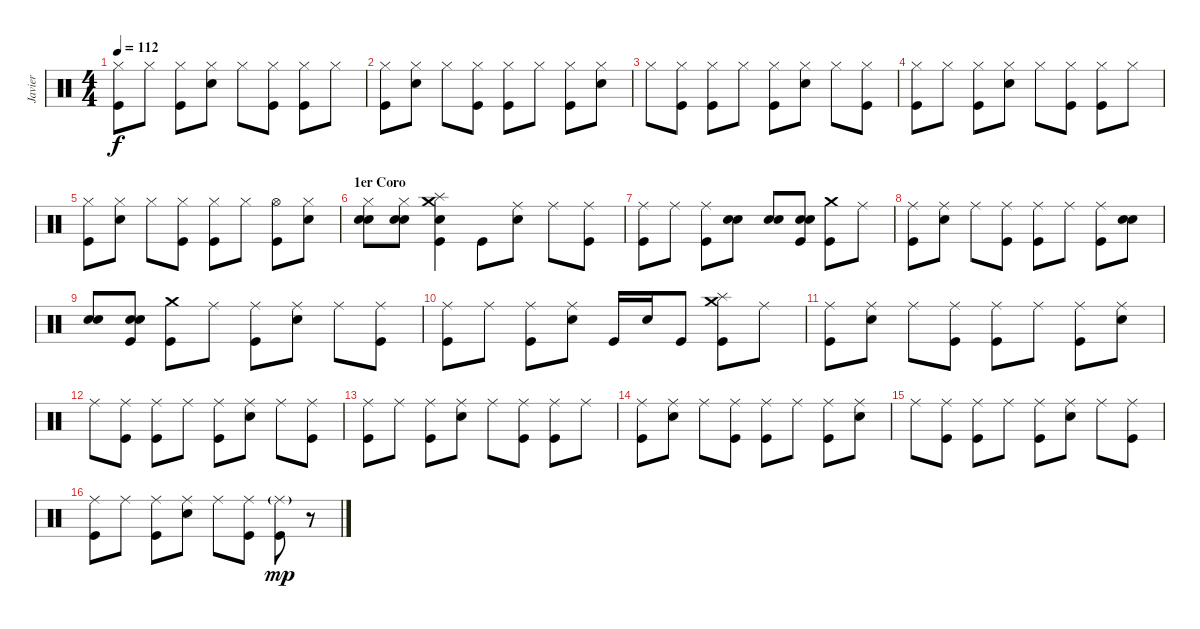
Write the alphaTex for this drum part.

\track ("Javier" "Javier") {instrument percussion}
\staff {score}
\articulation defaults
\ts (4 4)
\tempo 112
\clef neutral
\ks c
("Hi-Hat (closed)" "Kick (hit)").8{dy f} "Hi-Hat (closed)".8 ("Hi-Hat (closed)" "Kick (hit)").8 ("Hi-Hat (closed)" "Snare (hit) 2").8 "Hi-Hat (closed)".8 ("Hi-Hat (closed)" "Kick (hit)").8 ("Hi-Hat (closed)" "Kick (hit)").8 "Hi-Hat (closed)".8 |
("Hi-Hat (closed)" "Kick (hit)").8 ("Hi-Hat (closed)" "Snare (hit) 2").8 "Hi-Hat (closed)".8 ("Hi-Hat (closed)" "Kick (hit)").8 ("Hi-Hat (closed)" "Kick (hit)").8 "Hi-Hat (closed)".8 ("Hi-Hat (closed)" "Kick (hit)").8 ("Hi-Hat (closed)" "Snare (hit) 2").8 |
"Hi-Hat (closed)".8 ("Hi-Hat (closed)" "Kick (hit)").8 ("Hi-Hat (closed)" "Kick (hit)").8 "Hi-Hat (closed)".8 ("Hi-Hat (closed)" "Kick (hit)").8 ("Hi-Hat (closed)" "Snare (hit) 2").8 "Hi-Hat (closed)".8 ("Hi-Hat (closed)" "Kick (hit)").8 |
("Hi-Hat (closed)" "Kick (hit)").8 "Hi-Hat (closed)".8 ("Hi-Hat (closed)" "Kick (hit)").8 ("Hi-Hat (closed)" "Snare (hit) 2").8 "Hi-Hat (closed)".8 ("Hi-Hat (closed)" "Kick (hit)").8 ("Hi-Hat (closed)" "Kick (hit)").8 "Hi-Hat (closed)".8 |
("Hi-Hat (closed)" "Kick (hit)").8 ("Hi-Hat (closed)" "Snare (hit) 2").8 "Hi-Hat (closed)".8 ("Hi-Hat (closed)" "Kick (hit)").8 ("Hi-Hat (closed)" "Kick (hit)").8 "Hi-Hat (closed)".8 ("Hi-Hat (open)" "Kick (hit)").8 ("Hi-Hat (closed)" "Snare (hit) 2").8 |
\section ("" "1er Coro")
("Hi-Hat (closed)" "Snare (hit) 2" "Snare (hit) 2").8 ("Hi-Hat (closed)" "Snare (hit) 2" "Snare (hit) 2").8 ("Crash medium (hit)" "Splash (hit)" "Snare (hit) 2" "Kick (hit)").4 "Kick (hit)".8 ("Ride (middle)" "Snare (hit) 2").8 "Ride (middle)".8 ("Ride (middle)" "Kick (hit)").8 |
("Ride (middle)" "Kick (hit)").8 "Ride (middle)".8 ("Ride (middle)" "Kick (hit)").8 ("Snare (hit) 2" "Snare (hit) 2").8 ("Snare (hit) 2" "Snare (hit) 2").8 ("Snare (hit) 2" "Snare (hit) 2" "Kick (hit)").8 ("Crash medium (hit)" "Kick (hit)").8 "Ride (middle)".8 |
("Ride (middle)" "Kick (hit)").8 ("Ride (middle)" "Snare (hit) 2").8 "Ride (middle)".8 ("Ride (middle)" "Kick (hit)").8 ("Ride (middle)" "Kick (hit)").8 "Ride (middle)".8 ("Ride (middle)" "Kick (hit)").8 ("Snare (hit) 2" "Snare (hit) 2").8 |
("Snare (hit) 2" "Snare (hit) 2").8 ("Snare (hit) 2" "Snare (hit) 2" "Kick (hit)").8 ("Crash medium (hit)" "Kick (hit)").8 "Ride (middle)".8 ("Ride (middle)" "Kick (hit)").8 ("Ride (middle)" "Snare (hit) 2").8 "Ride (middle)".8 ("Ride (middle)" "Kick (hit)").8 |
("Ride (middle)" "Kick (hit)").8 "Ride (middle)".8 ("Ride (middle)" "Kick (hit)").8 ("Ride (middle)" "Snare (hit) 2").8 "Kick (hit)".16 "Snare (hit) 2".16 "Kick (hit)".8 ("Crash medium (hit)" "Splash (hit)" "Kick (hit)").8 "Ride (middle)".8 |
("Ride (middle)" "Kick (hit)").8 ("Ride (middle)" "Snare (hit) 2").8 "Ride (middle)".8 ("Ride (middle)" "Kick (hit)").8 ("Ride (middle)" "Kick (hit)").8 "Ride (middle)".8 ("Ride (middle)" "Kick (hit)").8 ("Ride (middle)" "Snare (hit) 2").8 |
"Ride (middle)".8 ("Ride (middle)" "Kick (hit)").8 ("Ride (middle)" "Kick (hit)").8 "Ride (middle)".8 ("Ride (middle)" "Kick (hit)").8 ("Ride (middle)" "Snare (hit) 2").8 "Ride (middle)".8 ("Ride (middle)" "Kick (hit)").8 |
("Ride (middle)" "Kick (hit)").8 "Ride (middle)".8 ("Ride (middle)" "Kick (hit)").8 ("Ride (middle)" "Snare (hit) 2").8 "Ride (middle)".8 ("Ride (middle)" "Kick (hit)").8 ("Ride (middle)" "Kick (hit)").8 "Ride (middle)".8 |
("Ride (middle)" "Kick (hit)").8 ("Ride (middle)" "Snare (hit) 2").8 "Ride (middle)".8 ("Ride (middle)" "Kick (hit)").8 ("Ride (middle)" "Kick (hit)").8 "Ride (middle)".8 ("Ride (middle)" "Kick (hit)").8 ("Ride (middle)" "Snare (hit) 2").8 |
"Ride (middle)".8 ("Ride (middle)" "Kick (hit)").8 ("Ride (middle)" "Kick (hit)").8 "Ride (middle)".8 ("Ride (middle)" "Kick (hit)").8 ("Ride (middle)" "Snare (hit) 2").8 "Ride (middle)".8 ("Ride (middle)" "Kick (hit)").8 |
("Ride (middle)" "Kick (hit)").8 "Ride (middle)".8 ("Ride (middle)" "Kick (hit)").8 ("Ride (middle)" "Snare (hit) 2").8 "Ride (middle)".8 ("Ride (middle)" "Kick (hit)").8 ("Ride (middle)"{g} "Kick (hit)").8{dy mp} r.8
